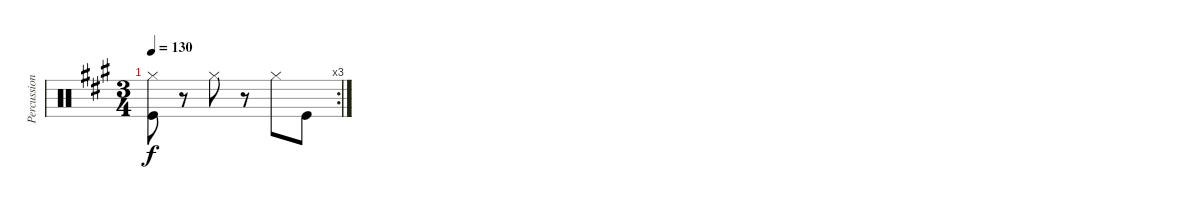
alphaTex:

\track ("Percussions" "Percussion") {instrument percussion}
\staff {score}
\articulation defaults
\rc 3
\ts (3 4)
\tempo 130
\clef neutral
\ks a
("Hi-Hat (closed)" "Kick (hit)").8{dy f} r.8 "Hi-Hat (closed)".8 r.8 "Hi-Hat (closed)".8 "Kick (hit)".8
